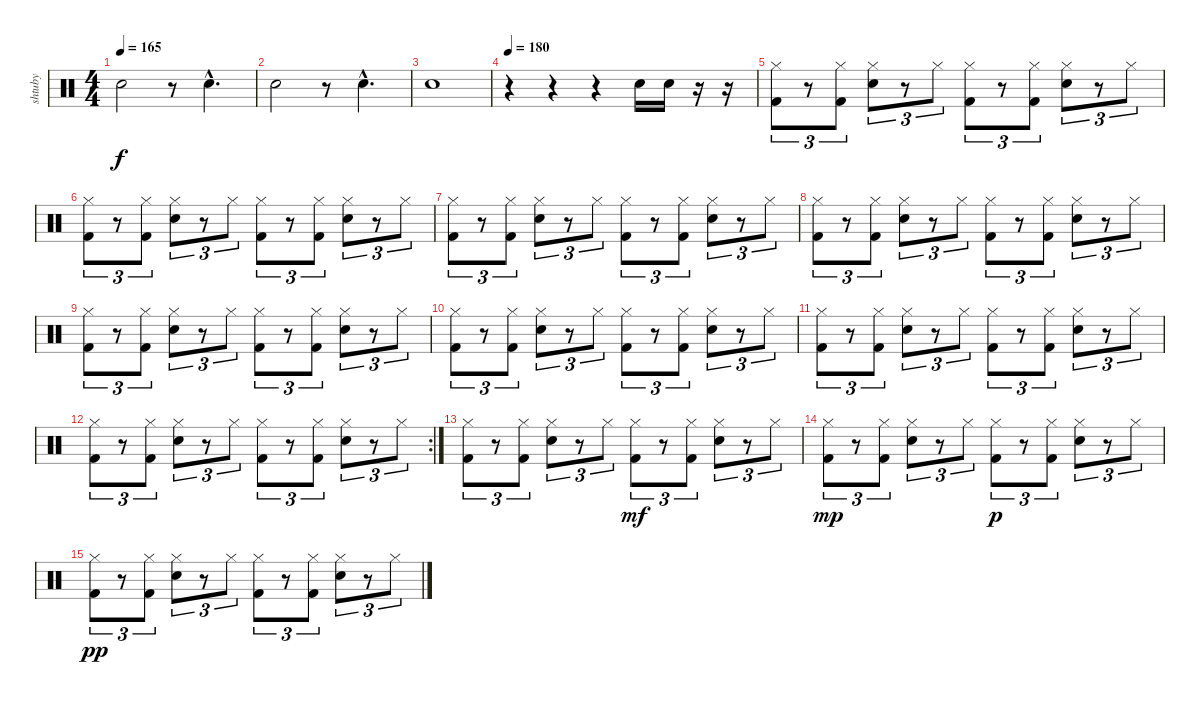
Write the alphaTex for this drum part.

\track ("shtuby" "shtuby") {instrument percussion}
\staff {score}
\articulation defaults
\ts (4 4)
\tempo 165
\clef neutral
\ks c "Electric Snare (hit)".2{dy f}
r.8 "Electric Snare (hit)"{hac}.4{d} |
"Electric Snare (hit)".2 r.8 "Electric Snare (hit)"{hac}.4{d} |
"Electric Snare (hit)".1 |
\tempo 180
r.4 r.4 r.4 "Electric Snare (hit)".16 "Electric Snare (hit)".16 r.16 r.16 |
("Hi-Hat (closed)" "Kick (hit) 2").8{tu (3 2)} r.8{tu (3 2)} ("Hi-Hat (closed)" "Kick (hit) 2").8{tu (3 2)} ("Hi-Hat (closed)" "Electric Snare (hit)").8{tu (3 2)} r.8{tu (3 2)} "Hi-Hat (closed)".8{tu (3 2)} ("Hi-Hat (closed)" "Kick (hit) 2").8{tu (3 2)} r.8{tu (3 2)} ("Hi-Hat (closed)" "Kick (hit) 2").8{tu (3 2)} ("Hi-Hat (closed)" "Electric Snare (hit)").8{tu (3 2)} r.8{tu (3 2)} "Hi-Hat (closed)".8{tu (3 2)} |
("Hi-Hat (closed)" "Kick (hit) 2").8{tu (3 2)} r.8{tu (3 2)} ("Hi-Hat (closed)" "Kick (hit) 2").8{tu (3 2)} ("Hi-Hat (closed)" "Electric Snare (hit)").8{tu (3 2)} r.8{tu (3 2)} "Hi-Hat (closed)".8{tu (3 2)} ("Hi-Hat (closed)" "Kick (hit) 2").8{tu (3 2)} r.8{tu (3 2)} ("Hi-Hat (closed)" "Kick (hit) 2").8{tu (3 2)} ("Hi-Hat (closed)" "Electric Snare (hit)").8{tu (3 2)} r.8{tu (3 2)} "Hi-Hat (closed)".8{tu (3 2)} |
("Hi-Hat (closed)" "Kick (hit) 2").8{tu (3 2)} r.8{tu (3 2)} ("Hi-Hat (closed)" "Kick (hit) 2").8{tu (3 2)} ("Hi-Hat (closed)" "Electric Snare (hit)").8{tu (3 2)} r.8{tu (3 2)} "Hi-Hat (closed)".8{tu (3 2)} ("Hi-Hat (closed)" "Kick (hit) 2").8{tu (3 2)} r.8{tu (3 2)} ("Hi-Hat (closed)" "Kick (hit) 2").8{tu (3 2)} ("Hi-Hat (closed)" "Electric Snare (hit)").8{tu (3 2)} r.8{tu (3 2)} "Hi-Hat (closed)".8{tu (3 2)} |
("Hi-Hat (closed)" "Kick (hit) 2").8{tu (3 2)} r.8{tu (3 2)} ("Hi-Hat (closed)" "Kick (hit) 2").8{tu (3 2)} ("Hi-Hat (closed)" "Electric Snare (hit)").8{tu (3 2)} r.8{tu (3 2)} "Hi-Hat (closed)".8{tu (3 2)} ("Hi-Hat (closed)" "Kick (hit) 2").8{tu (3 2)} r.8{tu (3 2)} ("Hi-Hat (closed)" "Kick (hit) 2").8{tu (3 2)} ("Hi-Hat (closed)" "Electric Snare (hit)").8{tu (3 2)} r.8{tu (3 2)} "Hi-Hat (closed)".8{tu (3 2)} |
("Hi-Hat (closed)" "Kick (hit) 2").8{tu (3 2)} r.8{tu (3 2)} ("Hi-Hat (closed)" "Kick (hit) 2").8{tu (3 2)} ("Hi-Hat (closed)" "Electric Snare (hit)").8{tu (3 2)} r.8{tu (3 2)} "Hi-Hat (closed)".8{tu (3 2)} ("Hi-Hat (closed)" "Kick (hit) 2").8{tu (3 2)} r.8{tu (3 2)} ("Hi-Hat (closed)" "Kick (hit) 2").8{tu (3 2)} ("Hi-Hat (closed)" "Electric Snare (hit)").8{tu (3 2)} r.8{tu (3 2)} "Hi-Hat (closed)".8{tu (3 2)} |
("Hi-Hat (closed)" "Kick (hit) 2").8{tu (3 2)} r.8{tu (3 2)} ("Hi-Hat (closed)" "Kick (hit) 2").8{tu (3 2)} ("Hi-Hat (closed)" "Electric Snare (hit)").8{tu (3 2)} r.8{tu (3 2)} "Hi-Hat (closed)".8{tu (3 2)} ("Hi-Hat (closed)" "Kick (hit) 2").8{tu (3 2)} r.8{tu (3 2)} ("Hi-Hat (closed)" "Kick (hit) 2").8{tu (3 2)} ("Hi-Hat (closed)" "Electric Snare (hit)").8{tu (3 2)} r.8{tu (3 2)} "Hi-Hat (closed)".8{tu (3 2)} |
("Hi-Hat (closed)" "Kick (hit) 2").8{tu (3 2)} r.8{tu (3 2)} ("Hi-Hat (closed)" "Kick (hit) 2").8{tu (3 2)} ("Hi-Hat (closed)" "Electric Snare (hit)").8{tu (3 2)} r.8{tu (3 2)} "Hi-Hat (closed)".8{tu (3 2)} ("Hi-Hat (closed)" "Kick (hit) 2").8{tu (3 2)} r.8{tu (3 2)} ("Hi-Hat (closed)" "Kick (hit) 2").8{tu (3 2)} ("Hi-Hat (closed)" "Electric Snare (hit)").8{tu (3 2)} r.8{tu (3 2)} "Hi-Hat (closed)".8{tu (3 2)} |
\rc 2
("Hi-Hat (closed)" "Kick (hit) 2").8{tu (3 2)} r.8{tu (3 2)} ("Hi-Hat (closed)" "Kick (hit) 2").8{tu (3 2)} ("Hi-Hat (closed)" "Electric Snare (hit)").8{tu (3 2)} r.8{tu (3 2)} "Hi-Hat (closed)".8{tu (3 2)} ("Hi-Hat (closed)" "Kick (hit) 2").8{tu (3 2)} r.8{tu (3 2)} ("Hi-Hat (closed)" "Kick (hit) 2").8{tu (3 2)} ("Hi-Hat (closed)" "Electric Snare (hit)").8{tu (3 2)} r.8{tu (3 2)} "Hi-Hat (closed)".8{tu (3 2)} |
("Hi-Hat (closed)" "Kick (hit) 2").8{tu (3 2)} r.8{tu (3 2)} ("Hi-Hat (closed)" "Kick (hit) 2").8{tu (3 2)} ("Hi-Hat (closed)" "Electric Snare (hit)").8{tu (3 2)} r.8{tu (3 2)} "Hi-Hat (closed)".8{tu (3 2)} ("Hi-Hat (closed)" "Kick (hit) 2").8{tu (3 2) dy mf} r.8{tu (3 2)} ("Hi-Hat (closed)" "Kick (hit) 2").8{tu (3 2)} ("Hi-Hat (closed)" "Electric Snare (hit)").8{tu (3 2)} r.8{tu (3 2)} "Hi-Hat (closed)".8{tu (3 2)} |
("Hi-Hat (closed)" "Kick (hit) 2").8{tu (3 2) dy mp} r.8{tu (3 2)} ("Hi-Hat (closed)" "Kick (hit) 2").8{tu (3 2)} ("Hi-Hat (closed)" "Electric Snare (hit)").8{tu (3 2)} r.8{tu (3 2)} "Hi-Hat (closed)".8{tu (3 2)} ("Hi-Hat (closed)" "Kick (hit) 2").8{tu (3 2) dy p} r.8{tu (3 2)} ("Hi-Hat (closed)" "Kick (hit) 2").8{tu (3 2)} ("Hi-Hat (closed)" "Electric Snare (hit)").8{tu (3 2)} r.8{tu (3 2)} "Hi-Hat (closed)".8{tu (3 2)} |
("Hi-Hat (closed)" "Kick (hit) 2").8{tu (3 2) dy pp} r.8{tu (3 2)} ("Hi-Hat (closed)" "Kick (hit) 2").8{tu (3 2)} ("Hi-Hat (closed)" "Electric Snare (hit)").8{tu (3 2)} r.8{tu (3 2)} "Hi-Hat (closed)".8{tu (3 2)} ("Hi-Hat (closed)" "Kick (hit) 2").8{tu (3 2)} r.8{tu (3 2)} ("Hi-Hat (closed)" "Kick (hit) 2").8{tu (3 2)} ("Hi-Hat (closed)" "Electric Snare (hit)").8{tu (3 2)} r.8{tu (3 2)} "Hi-Hat (closed)".8{tu (3 2)}
